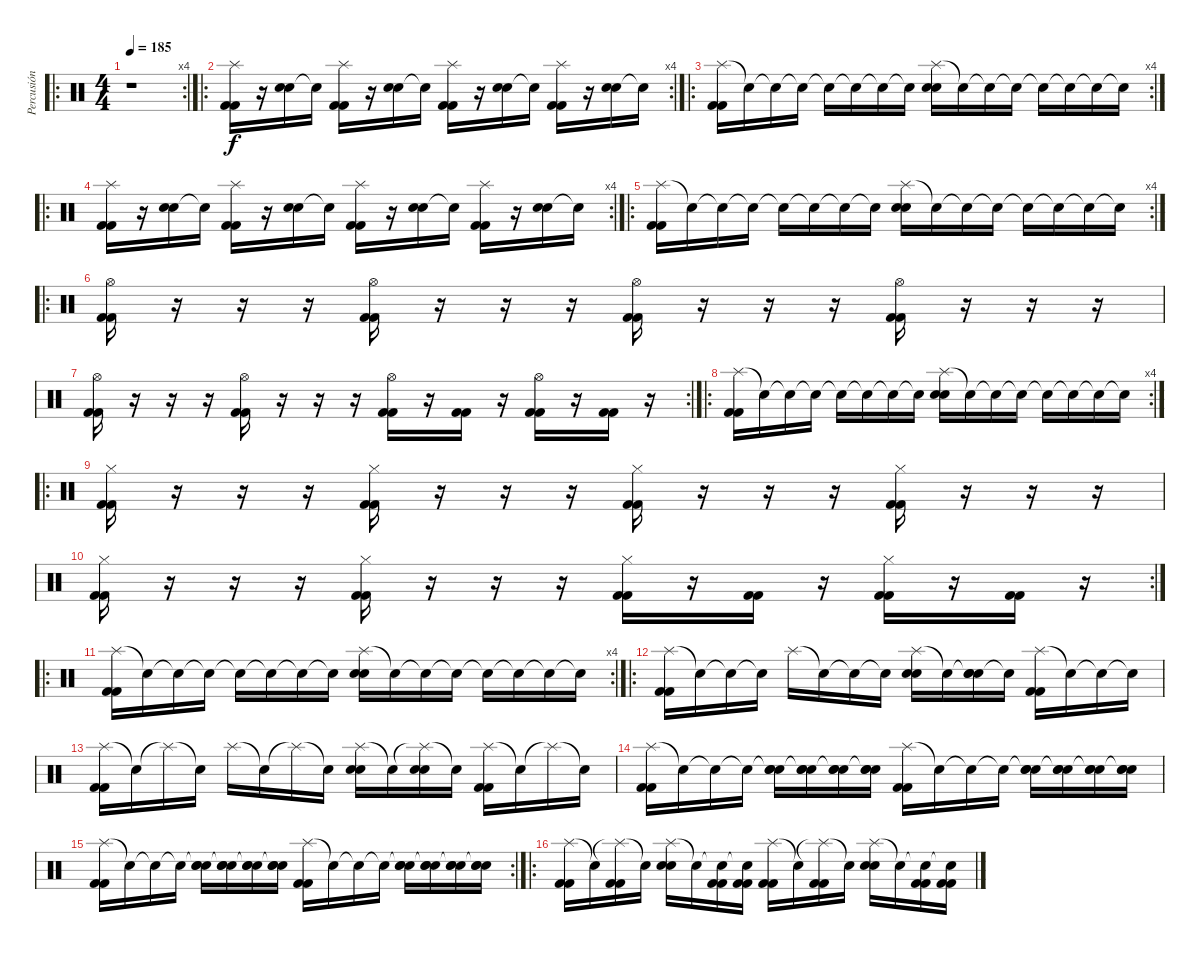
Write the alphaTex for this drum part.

\track ("Percusión" "Percusión") {instrument percussion}
\staff {score}
\articulation defaults
\ro
\rc 4
\ts (4 4)
\tempo 185
\clef neutral
\ks c
r.1{dy f} |
\ro
\rc 4
("Splash (hit)" "Kick (hit) 2" "Kick (hit) 2").16 r.16 ("Electric Snare (hit)" "Electric Snare (hit)").16 "Snare (hit)"{t}.16 ("Splash (hit)" "Kick (hit) 2" "Kick (hit) 2").16 r.16 ("Electric Snare (hit)" "Electric Snare (hit)").16 "Snare (hit)"{t}.16 ("Splash (hit)" "Kick (hit) 2" "Kick (hit) 2").16 r.16 ("Electric Snare (hit)" "Electric Snare (hit)").16 "Snare (hit)"{t}.16 ("Splash (hit)" "Kick (hit) 2" "Kick (hit) 2").16 r.16 ("Electric Snare (hit)" "Electric Snare (hit)").16 "Snare (hit)"{t}.16 |
\ro
\rc 4
("Splash (hit)" "Kick (hit) 2" "Kick (hit) 2").16 "Snare (hit)"{t}.16 "Snare (hit)"{t}.16 "Snare (hit)"{t}.16 "Snare (hit)"{t}.16 "Snare (hit)"{t}.16 "Snare (hit)"{t}.16 "Snare (hit)"{t}.16 ("Splash (hit)" "Electric Snare (hit)" "Electric Snare (hit)").16 "Snare (hit)"{t}.16 "Snare (hit)"{t}.16 "Snare (hit)"{t}.16 "Snare (hit)"{t}.16 "Snare (hit)"{t}.16 "Snare (hit)"{t}.16 "Snare (hit)"{t}.16 |
\ro
\rc 4
("Splash (hit)" "Kick (hit) 2" "Kick (hit) 2").16 r.16 ("Electric Snare (hit)" "Electric Snare (hit)").16 "Snare (hit)"{t}.16 ("Splash (hit)" "Kick (hit) 2" "Kick (hit) 2").16 r.16 ("Electric Snare (hit)" "Electric Snare (hit)").16 "Snare (hit)"{t}.16 ("Splash (hit)" "Kick (hit) 2" "Kick (hit) 2").16 r.16 ("Electric Snare (hit)" "Electric Snare (hit)").16 "Snare (hit)"{t}.16 ("Splash (hit)" "Kick (hit) 2" "Kick (hit) 2").16 r.16 ("Electric Snare (hit)" "Electric Snare (hit)").16 "Snare (hit)"{t}.16 |
\ro
\rc 4
("Splash (hit)" "Kick (hit) 2" "Kick (hit) 2").16 "Snare (hit)"{t}.16 "Snare (hit)"{t}.16 "Snare (hit)"{t}.16 "Snare (hit)"{t}.16 "Snare (hit)"{t}.16 "Snare (hit)"{t}.16 "Snare (hit)"{t}.16 ("Splash (hit)" "Electric Snare (hit)" "Electric Snare (hit)").16 "Snare (hit)"{t}.16 "Snare (hit)"{t}.16 "Snare (hit)"{t}.16 "Snare (hit)"{t}.16 "Snare (hit)"{t}.16 "Snare (hit)"{t}.16 "Snare (hit)"{t}.16 |
\ro
("Hi-Hat (open)" "Kick (hit) 2" "Kick (hit) 2").16 r.16 r.16 r.16 ("Hi-Hat (open)" "Kick (hit) 2" "Kick (hit) 2").16 r.16 r.16 r.16 ("Hi-Hat (open)" "Kick (hit) 2" "Kick (hit) 2").16 r.16 r.16 r.16 ("Hi-Hat (open)" "Kick (hit) 2" "Kick (hit) 2").16 r.16 r.16 r.16 |
\rc 2
("Hi-Hat (open)" "Kick (hit) 2" "Kick (hit) 2").16 r.16 r.16 r.16 ("Hi-Hat (open)" "Kick (hit) 2" "Kick (hit) 2").16 r.16 r.16 r.16 ("Hi-Hat (open)" "Kick (hit) 2" "Kick (hit) 2").16 r.16 ("Kick (hit) 2" "Kick (hit) 2").16 r.16 ("Hi-Hat (open)" "Kick (hit) 2" "Kick (hit) 2").16 r.16 ("Kick (hit) 2" "Kick (hit) 2").16 r.16 |
\ro
\rc 4
("Splash (hit)" "Kick (hit) 2" "Kick (hit) 2").16 "Snare (hit)"{t}.16 "Snare (hit)"{t}.16 "Snare (hit)"{t}.16 "Snare (hit)"{t}.16 "Snare (hit)"{t}.16 "Snare (hit)"{t}.16 "Snare (hit)"{t}.16 ("Splash (hit)" "Electric Snare (hit)" "Electric Snare (hit)").16 "Snare (hit)"{t}.16 "Snare (hit)"{t}.16 "Snare (hit)"{t}.16 "Snare (hit)"{t}.16 "Snare (hit)"{t}.16 "Snare (hit)"{t}.16 "Snare (hit)"{t}.16 |
\ro
("Hi-Hat (closed)" "Kick (hit) 2" "Kick (hit) 2").16 r.16 r.16 r.16 ("Hi-Hat (closed)" "Kick (hit) 2" "Kick (hit) 2").16 r.16 r.16 r.16 ("Hi-Hat (closed)" "Kick (hit) 2" "Kick (hit) 2").16 r.16 r.16 r.16 ("Hi-Hat (closed)" "Kick (hit) 2" "Kick (hit) 2").16 r.16 r.16 r.16 |
\rc 2
("Hi-Hat (closed)" "Kick (hit) 2" "Kick (hit) 2").16 r.16 r.16 r.16 ("Hi-Hat (closed)" "Kick (hit) 2" "Kick (hit) 2").16 r.16 r.16 r.16 ("Hi-Hat (closed)" "Kick (hit) 2" "Kick (hit) 2").16 r.16 ("Kick (hit) 2" "Kick (hit) 2").16 r.16 ("Hi-Hat (closed)" "Kick (hit) 2" "Kick (hit) 2").16 r.16 ("Kick (hit) 2" "Kick (hit) 2").16 r.16 |
\ro
\rc 4
("Splash (hit)" "Kick (hit) 2" "Kick (hit) 2").16 "Snare (hit)"{t}.16 "Snare (hit)"{t}.16 "Snare (hit)"{t}.16 "Snare (hit)"{t}.16 "Snare (hit)"{t}.16 "Snare (hit)"{t}.16 "Snare (hit)"{t}.16 ("Splash (hit)" "Electric Snare (hit)" "Electric Snare (hit)").16 "Snare (hit)"{t}.16 "Snare (hit)"{t}.16 "Snare (hit)"{t}.16 "Snare (hit)"{t}.16 "Snare (hit)"{t}.16 "Snare (hit)"{t}.16 "Snare (hit)"{t}.16 |
\ro
("Splash (hit)" "Kick (hit) 2" "Kick (hit) 2").16 "Snare (hit)"{t}.16 "Snare (hit)"{t}.16 "Snare (hit)"{t}.16 "Splash (hit)".16 "Snare (hit)"{t}.16 "Snare (hit)"{t}.16 "Snare (hit)"{t}.16 ("Splash (hit)" "Electric Snare (hit)" "Electric Snare (hit)").16 "Snare (hit)"{t}.16 ("Snare (hit)"{t} "Electric Snare (hit)" "Electric Snare (hit)").16 "Snare (hit)"{t}.16 ("Splash (hit)" "Kick (hit) 2" "Kick (hit) 2").16 "Snare (hit)"{t}.16 "Snare (hit)"{t}.16 "Snare (hit)"{t}.16 |
("Splash (hit)" "Kick (hit) 2" "Kick (hit) 2").16 "Snare (hit)"{t}.16 "Splash (hit)"{t}.16 "Snare (hit)"{t}.16 "Splash (hit)".16 "Snare (hit)"{t}.16 "Splash (hit)"{t}.16 "Snare (hit)"{t}.16 ("Splash (hit)" "Electric Snare (hit)" "Electric Snare (hit)").16 "Snare (hit)"{t}.16 ("Splash (hit)"{t} "Electric Snare (hit)" "Electric Snare (hit)").16 "Snare (hit)"{t}.16 ("Splash (hit)" "Kick (hit) 2" "Kick (hit) 2").16 "Snare (hit)"{t}.16 "Splash (hit)"{t}.16 "Snare (hit)"{t}.16 |
("Splash (hit)" "Kick (hit) 2" "Kick (hit) 2").16 "Snare (hit)"{t}.16 "Snare (hit)"{t}.16 "Snare (hit)"{t}.16 ("Snare (hit)"{t} "Electric Snare (hit)" "Electric Snare (hit)").16 ("Snare (hit)"{t} "Electric Snare (hit)" "Electric Snare (hit)").16 ("Snare (hit)"{t} "Electric Snare (hit)" "Electric Snare (hit)").16 ("Snare (hit)"{t} "Electric Snare (hit)" "Electric Snare (hit)").16 ("Splash (hit)" "Kick (hit) 2" "Kick (hit) 2").16 "Snare (hit)"{t}.16 "Snare (hit)"{t}.16 "Snare (hit)"{t}.16 ("Snare (hit)"{t} "Electric Snare (hit)" "Electric Snare (hit)").16 ("Snare (hit)"{t} "Electric Snare (hit)" "Electric Snare (hit)").16 ("Snare (hit)"{t} "Electric Snare (hit)" "Electric Snare (hit)").16 ("Snare (hit)"{t} "Electric Snare (hit)" "Electric Snare (hit)").16 |
\rc 2
("Splash (hit)" "Kick (hit) 2" "Kick (hit) 2").16 "Snare (hit)"{t}.16 "Snare (hit)"{t}.16 "Snare (hit)"{t}.16 ("Snare (hit)"{t} "Electric Snare (hit)" "Electric Snare (hit)").16 ("Snare (hit)"{t} "Electric Snare (hit)" "Electric Snare (hit)").16 ("Snare (hit)"{t} "Electric Snare (hit)" "Electric Snare (hit)").16 ("Snare (hit)"{t} "Electric Snare (hit)" "Electric Snare (hit)").16 ("Splash (hit)" "Kick (hit) 2" "Kick (hit) 2").16 "Snare (hit)"{t}.16 "Snare (hit)"{t}.16 "Snare (hit)"{t}.16 ("Snare (hit)"{t} "Electric Snare (hit)" "Electric Snare (hit)").16 ("Snare (hit)"{t} "Electric Snare (hit)" "Electric Snare (hit)").16 ("Snare (hit)"{t} "Electric Snare (hit)" "Electric Snare (hit)").16 ("Snare (hit)"{t} "Electric Snare (hit)" "Electric Snare (hit)").16 |
\ro
("Splash (hit)" "Kick (hit) 2" "Kick (hit) 2").16 "Snare (hit)"{t}.16 ("Splash (hit)"{t} "Kick (hit) 2" "Kick (hit) 2").16 "Snare (hit)"{t}.16 ("Splash (hit)" "Electric Snare (hit)" "Electric Snare (hit)").16 "Snare (hit)"{t}.16 ("Snare (hit)"{t} "Kick (hit) 2" "Kick (hit) 2").16 ("Snare (hit)"{t} "Kick (hit) 2" "Kick (hit) 2").16 ("Splash (hit)" "Kick (hit) 2" "Kick (hit) 2").16 "Snare (hit)"{t}.16 ("Splash (hit)"{t} "Kick (hit) 2" "Kick (hit) 2").16 "Snare (hit)"{t}.16 ("Splash (hit)" "Electric Snare (hit)" "Electric Snare (hit)").16 "Snare (hit)"{t}.16 ("Snare (hit)"{t} "Kick (hit) 2" "Kick (hit) 2").16 ("Snare (hit)"{t} "Kick (hit) 2" "Kick (hit) 2").16
